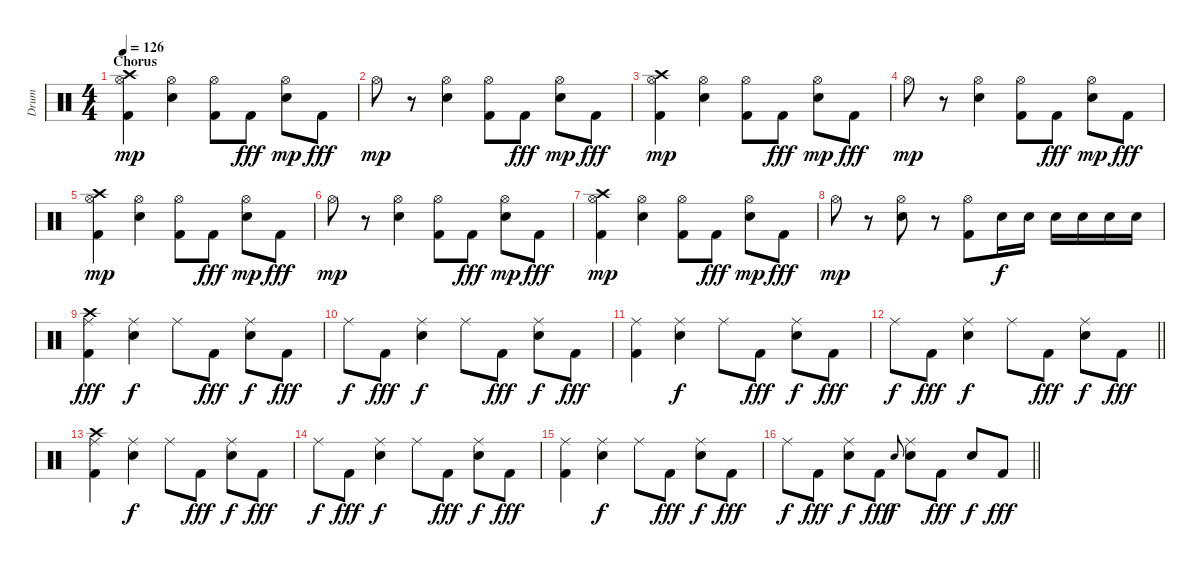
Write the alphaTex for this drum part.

\track ("Drum" "Drum") {instrument percussion}
\staff {score}
\articulation defaults
\ts (4 4)
\section ("" "Chorus")
\tempo 126
\clef neutral
\ks c
("Kick (hit) 2" "Hi-Hat (open)" "Crash high (hit)").4{dy mp} ("Electric Snare (hit)" "Hi-Hat (open)").4 ("Kick (hit) 2" "Hi-Hat (open)").8 "Kick (hit) 2".8{dy fff} ("Electric Snare (hit)" "Hi-Hat (open)").8{dy mp} "Kick (hit) 2".8{dy fff} |
"Hi-Hat (open)".8{dy mp} r.8 ("Electric Snare (hit)" "Hi-Hat (open)").4 ("Kick (hit) 2" "Hi-Hat (open)").8 "Kick (hit) 2".8{dy fff} ("Electric Snare (hit)" "Hi-Hat (open)").8{dy mp} "Kick (hit) 2".8{dy fff} |
("Kick (hit) 2" "Hi-Hat (open)" "Crash high (hit)").4{dy mp} ("Electric Snare (hit)" "Hi-Hat (open)").4 ("Kick (hit) 2" "Hi-Hat (open)").8 "Kick (hit) 2".8{dy fff} ("Electric Snare (hit)" "Hi-Hat (open)").8{dy mp} "Kick (hit) 2".8{dy fff} |
"Hi-Hat (open)".8{dy mp} r.8 ("Electric Snare (hit)" "Hi-Hat (open)").4 ("Kick (hit) 2" "Hi-Hat (open)").8 "Kick (hit) 2".8{dy fff} ("Electric Snare (hit)" "Hi-Hat (open)").8{dy mp} "Kick (hit) 2".8{dy fff} |
("Kick (hit) 2" "Hi-Hat (open)" "Crash high (hit)").4{dy mp} ("Electric Snare (hit)" "Hi-Hat (open)").4 ("Kick (hit) 2" "Hi-Hat (open)").8 "Kick (hit) 2".8{dy fff} ("Electric Snare (hit)" "Hi-Hat (open)").8{dy mp} "Kick (hit) 2".8{dy fff} |
"Hi-Hat (open)".8{dy mp} r.8 ("Electric Snare (hit)" "Hi-Hat (open)").4 ("Kick (hit) 2" "Hi-Hat (open)").8 "Kick (hit) 2".8{dy fff} ("Electric Snare (hit)" "Hi-Hat (open)").8{dy mp} "Kick (hit) 2".8{dy fff} |
("Kick (hit) 2" "Hi-Hat (open)" "Crash high (hit)").4{dy mp} ("Electric Snare (hit)" "Hi-Hat (open)").4 ("Kick (hit) 2" "Hi-Hat (open)").8 "Kick (hit) 2".8{dy fff} ("Electric Snare (hit)" "Hi-Hat (open)").8{dy mp} "Kick (hit) 2".8{dy fff} |
"Hi-Hat (open)".8{dy mp} r.8 ("Electric Snare (hit)" "Hi-Hat (open)").8 r.8 ("Kick (hit) 2" "Hi-Hat (open)").8 "Electric Snare (hit)".16{dy f} "Electric Snare (hit)".16 "Electric Snare (hit)".16 "Electric Snare (hit)".16 "Electric Snare (hit)".16 "Electric Snare (hit)".16 |
("Kick (hit) 2" "Ride (middle)" "Crash high (hit)").4{dy fff} ("Electric Snare (hit)" "Ride (middle)").4{dy f} "Ride (middle)".8 "Kick (hit) 2".8{dy fff} ("Electric Snare (hit)" "Ride (middle)").8{dy f} "Kick (hit) 2".8{dy fff} |
"Ride (middle)".8{dy f} "Kick (hit) 2".8{dy fff} ("Electric Snare (hit)" "Ride (middle)").4{dy f} "Ride (middle)".8 "Kick (hit) 2".8{dy fff} ("Electric Snare (hit)" "Ride (middle)").8{dy f} "Kick (hit) 2".8{dy fff} |
("Kick (hit) 2" "Ride (middle)").4 ("Electric Snare (hit)" "Ride (middle)").4{dy f} "Ride (middle)".8 "Kick (hit) 2".8{dy fff} ("Electric Snare (hit)" "Ride (middle)").8{dy f} "Kick (hit) 2".8{dy fff} |
\barLineRight lightlight "Ride (middle)".8{dy f} "Kick (hit) 2".8{dy fff}
("Electric Snare (hit)" "Ride (middle)").4{dy f} "Ride (middle)".8 "Kick (hit) 2".8{dy fff} ("Electric Snare (hit)" "Ride (middle)").8{dy f} "Kick (hit) 2".8{dy fff} |
("Kick (hit) 2" "Ride (middle)" "Crash high (hit)").4 ("Electric Snare (hit)" "Ride (middle)").4{dy f} "Ride (middle)".8 "Kick (hit) 2".8{dy fff} ("Electric Snare (hit)" "Ride (middle)").8{dy f} "Kick (hit) 2".8{dy fff} |
"Ride (middle)".8{dy f} "Kick (hit) 2".8{dy fff} ("Electric Snare (hit)" "Ride (middle)").4{dy f} "Ride (middle)".8 "Kick (hit) 2".8{dy fff} ("Electric Snare (hit)" "Ride (middle)").8{dy f} "Kick (hit) 2".8{dy fff} |
("Kick (hit) 2" "Ride (middle)").4 ("Electric Snare (hit)" "Ride (middle)").4{dy f} "Ride (middle)".8 "Kick (hit) 2".8{dy fff} ("Electric Snare (hit)" "Ride (middle)").8{dy f} "Kick (hit) 2".8{dy fff} |
\barLineRight lightlight "Ride (middle)".8{dy f} "Kick (hit) 2".8{dy fff}
("Electric Snare (hit)" "Ride (middle)").8{dy f} "Kick (hit) 2".8{dy fff} "Electric Snare (hit)".8{gr onbeat dy f} ("Electric Snare (hit)" "Ride (middle)").8 "Kick (hit) 2".8{dy fff} "Electric Snare (hit)".8{dy f} "Kick (hit) 2".8{dy fff}
